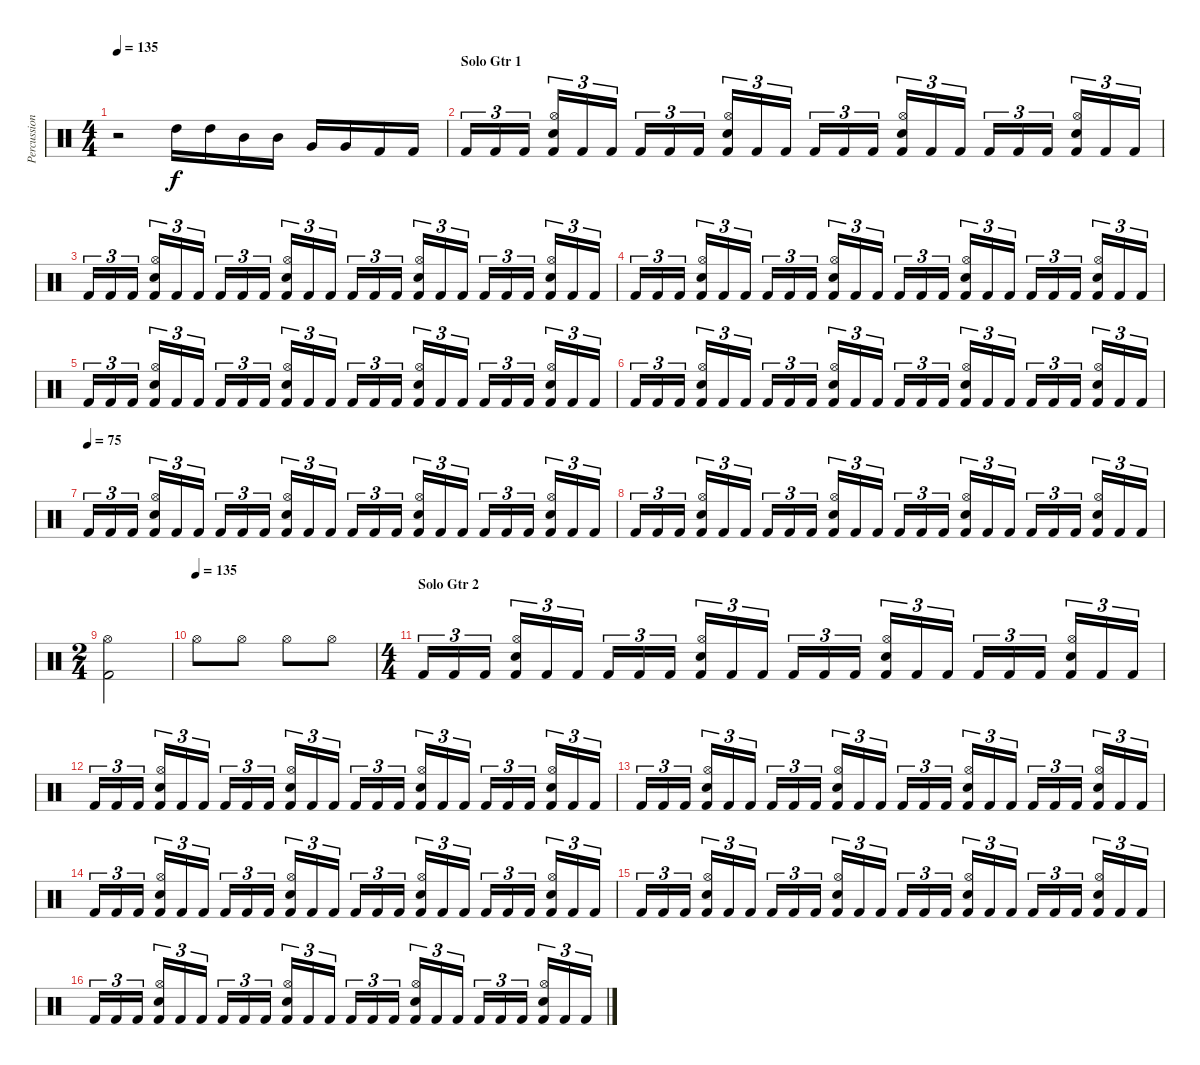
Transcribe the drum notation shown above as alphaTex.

\track ("Percussion" "Percussion") {instrument percussion}
\staff {score}
\articulation defaults
\ts (4 4)
\tempo 135
\clef neutral
\ks c
r.2{dy f} "High Tom (hit)".16 "High Tom (hit)".16 "Mid Tom (hit)".16 "Mid Tom (hit)".16 "Very Low Tom (hit)".16 "Very Low Tom (hit)".16 "Kick (hit) 2".16 "Kick (hit) 2".16 |
\section ("" "Solo Gtr 1")
"Kick (hit) 2".16{tu (3 2)} "Kick (hit) 2".16{tu (3 2)} "Kick (hit) 2".16{tu (3 2)} ("Hi-Hat (open)" "Snare (hit) 2" "Kick (hit) 2").16{tu (3 2)} "Kick (hit) 2".16{tu (3 2)} "Kick (hit) 2".16{tu (3 2)} "Kick (hit) 2".16{tu (3 2)} "Kick (hit) 2".16{tu (3 2)} "Kick (hit) 2".16{tu (3 2)} ("Hi-Hat (open)" "Snare (hit) 2" "Kick (hit) 2").16{tu (3 2)} "Kick (hit) 2".16{tu (3 2)} "Kick (hit) 2".16{tu (3 2)} "Kick (hit) 2".16{tu (3 2)} "Kick (hit) 2".16{tu (3 2)} "Kick (hit) 2".16{tu (3 2)} ("Hi-Hat (open)" "Snare (hit) 2" "Kick (hit) 2").16{tu (3 2)} "Kick (hit) 2".16{tu (3 2)} "Kick (hit) 2".16{tu (3 2)} "Kick (hit) 2".16{tu (3 2)} "Kick (hit) 2".16{tu (3 2)} "Kick (hit) 2".16{tu (3 2)} ("Hi-Hat (open)" "Snare (hit) 2" "Kick (hit) 2").16{tu (3 2)} "Kick (hit) 2".16{tu (3 2)} "Kick (hit) 2".16{tu (3 2)} |
"Kick (hit) 2".16{tu (3 2)} "Kick (hit) 2".16{tu (3 2)} "Kick (hit) 2".16{tu (3 2)} ("Hi-Hat (open)" "Snare (hit) 2" "Kick (hit) 2").16{tu (3 2)} "Kick (hit) 2".16{tu (3 2)} "Kick (hit) 2".16{tu (3 2)} "Kick (hit) 2".16{tu (3 2)} "Kick (hit) 2".16{tu (3 2)} "Kick (hit) 2".16{tu (3 2)} ("Hi-Hat (open)" "Snare (hit) 2" "Kick (hit) 2").16{tu (3 2)} "Kick (hit) 2".16{tu (3 2)} "Kick (hit) 2".16{tu (3 2)} "Kick (hit) 2".16{tu (3 2)} "Kick (hit) 2".16{tu (3 2)} "Kick (hit) 2".16{tu (3 2)} ("Hi-Hat (open)" "Snare (hit) 2" "Kick (hit) 2").16{tu (3 2)} "Kick (hit) 2".16{tu (3 2)} "Kick (hit) 2".16{tu (3 2)} "Kick (hit) 2".16{tu (3 2)} "Kick (hit) 2".16{tu (3 2)} "Kick (hit) 2".16{tu (3 2)} ("Hi-Hat (open)" "Snare (hit) 2" "Kick (hit) 2").16{tu (3 2)} "Kick (hit) 2".16{tu (3 2)} "Kick (hit) 2".16{tu (3 2)} |
"Kick (hit) 2".16{tu (3 2)} "Kick (hit) 2".16{tu (3 2)} "Kick (hit) 2".16{tu (3 2)} ("Hi-Hat (open)" "Snare (hit) 2" "Kick (hit) 2").16{tu (3 2)} "Kick (hit) 2".16{tu (3 2)} "Kick (hit) 2".16{tu (3 2)} "Kick (hit) 2".16{tu (3 2)} "Kick (hit) 2".16{tu (3 2)} "Kick (hit) 2".16{tu (3 2)} ("Hi-Hat (open)" "Snare (hit) 2" "Kick (hit) 2").16{tu (3 2)} "Kick (hit) 2".16{tu (3 2)} "Kick (hit) 2".16{tu (3 2)} "Kick (hit) 2".16{tu (3 2)} "Kick (hit) 2".16{tu (3 2)} "Kick (hit) 2".16{tu (3 2)} ("Hi-Hat (open)" "Snare (hit) 2" "Kick (hit) 2").16{tu (3 2)} "Kick (hit) 2".16{tu (3 2)} "Kick (hit) 2".16{tu (3 2)} "Kick (hit) 2".16{tu (3 2)} "Kick (hit) 2".16{tu (3 2)} "Kick (hit) 2".16{tu (3 2)} ("Hi-Hat (open)" "Snare (hit) 2" "Kick (hit) 2").16{tu (3 2)} "Kick (hit) 2".16{tu (3 2)} "Kick (hit) 2".16{tu (3 2)} |
"Kick (hit) 2".16{tu (3 2)} "Kick (hit) 2".16{tu (3 2)} "Kick (hit) 2".16{tu (3 2)} ("Hi-Hat (open)" "Snare (hit) 2" "Kick (hit) 2").16{tu (3 2)} "Kick (hit) 2".16{tu (3 2)} "Kick (hit) 2".16{tu (3 2)} "Kick (hit) 2".16{tu (3 2)} "Kick (hit) 2".16{tu (3 2)} "Kick (hit) 2".16{tu (3 2)} ("Hi-Hat (open)" "Snare (hit) 2" "Kick (hit) 2").16{tu (3 2)} "Kick (hit) 2".16{tu (3 2)} "Kick (hit) 2".16{tu (3 2)} "Kick (hit) 2".16{tu (3 2)} "Kick (hit) 2".16{tu (3 2)} "Kick (hit) 2".16{tu (3 2)} ("Hi-Hat (open)" "Snare (hit) 2" "Kick (hit) 2").16{tu (3 2)} "Kick (hit) 2".16{tu (3 2)} "Kick (hit) 2".16{tu (3 2)} "Kick (hit) 2".16{tu (3 2)} "Kick (hit) 2".16{tu (3 2)} "Kick (hit) 2".16{tu (3 2)} ("Hi-Hat (open)" "Snare (hit) 2" "Kick (hit) 2").16{tu (3 2)} "Kick (hit) 2".16{tu (3 2)} "Kick (hit) 2".16{tu (3 2)} |
"Kick (hit) 2".16{tu (3 2)} "Kick (hit) 2".16{tu (3 2)} "Kick (hit) 2".16{tu (3 2)} ("Hi-Hat (open)" "Snare (hit) 2" "Kick (hit) 2").16{tu (3 2)} "Kick (hit) 2".16{tu (3 2)} "Kick (hit) 2".16{tu (3 2)} "Kick (hit) 2".16{tu (3 2)} "Kick (hit) 2".16{tu (3 2)} "Kick (hit) 2".16{tu (3 2)} ("Hi-Hat (open)" "Snare (hit) 2" "Kick (hit) 2").16{tu (3 2)} "Kick (hit) 2".16{tu (3 2)} "Kick (hit) 2".16{tu (3 2)} "Kick (hit) 2".16{tu (3 2)} "Kick (hit) 2".16{tu (3 2)} "Kick (hit) 2".16{tu (3 2)} ("Hi-Hat (open)" "Snare (hit) 2" "Kick (hit) 2").16{tu (3 2)} "Kick (hit) 2".16{tu (3 2)} "Kick (hit) 2".16{tu (3 2)} "Kick (hit) 2".16{tu (3 2)} "Kick (hit) 2".16{tu (3 2)} "Kick (hit) 2".16{tu (3 2)} ("Hi-Hat (open)" "Snare (hit) 2" "Kick (hit) 2").16{tu (3 2)} "Kick (hit) 2".16{tu (3 2)} "Kick (hit) 2".16{tu (3 2)} |
\tempo (75)
"Kick (hit) 2".16{tu (3 2)} "Kick (hit) 2".16{tu (3 2)} "Kick (hit) 2".16{tu (3 2)} ("Hi-Hat (open)" "Snare (hit) 2" "Kick (hit) 2").16{tu (3 2)} "Kick (hit) 2".16{tu (3 2)} "Kick (hit) 2".16{tu (3 2)} "Kick (hit) 2".16{tu (3 2)} "Kick (hit) 2".16{tu (3 2)} "Kick (hit) 2".16{tu (3 2)} ("Hi-Hat (open)" "Snare (hit) 2" "Kick (hit) 2").16{tu (3 2)} "Kick (hit) 2".16{tu (3 2)} "Kick (hit) 2".16{tu (3 2)} "Kick (hit) 2".16{tu (3 2)} "Kick (hit) 2".16{tu (3 2)} "Kick (hit) 2".16{tu (3 2)} ("Hi-Hat (open)" "Snare (hit) 2" "Kick (hit) 2").16{tu (3 2)} "Kick (hit) 2".16{tu (3 2)} "Kick (hit) 2".16{tu (3 2)} "Kick (hit) 2".16{tu (3 2)} "Kick (hit) 2".16{tu (3 2)} "Kick (hit) 2".16{tu (3 2)} ("Hi-Hat (open)" "Snare (hit) 2" "Kick (hit) 2").16{tu (3 2)} "Kick (hit) 2".16{tu (3 2)} "Kick (hit) 2".16{tu (3 2)} |
"Kick (hit) 2".16{tu (3 2)} "Kick (hit) 2".16{tu (3 2)} "Kick (hit) 2".16{tu (3 2)} ("Hi-Hat (open)" "Snare (hit) 2" "Kick (hit) 2").16{tu (3 2)} "Kick (hit) 2".16{tu (3 2)} "Kick (hit) 2".16{tu (3 2)} "Kick (hit) 2".16{tu (3 2)} "Kick (hit) 2".16{tu (3 2)} "Kick (hit) 2".16{tu (3 2)} ("Hi-Hat (open)" "Snare (hit) 2" "Kick (hit) 2").16{tu (3 2)} "Kick (hit) 2".16{tu (3 2)} "Kick (hit) 2".16{tu (3 2)} "Kick (hit) 2".16{tu (3 2)} "Kick (hit) 2".16{tu (3 2)} "Kick (hit) 2".16{tu (3 2)} ("Hi-Hat (open)" "Snare (hit) 2" "Kick (hit) 2").16{tu (3 2)} "Kick (hit) 2".16{tu (3 2)} "Kick (hit) 2".16{tu (3 2)} "Kick (hit) 2".16{tu (3 2)} "Kick (hit) 2".16{tu (3 2)} "Kick (hit) 2".16{tu (3 2)} ("Hi-Hat (open)" "Snare (hit) 2" "Kick (hit) 2").16{tu (3 2)} "Kick (hit) 2".16{tu (3 2)} "Kick (hit) 2".16{tu (3 2)} |
\ts (2 4)
("Hi-Hat (open)" "Kick (hit) 2").2 |
\tempo (135)
"Hi-Hat (open)".8 "Hi-Hat (open)".8 "Hi-Hat (open)".8 "Hi-Hat (open)".8 |
\ts (4 4)
\section ("" "Solo Gtr 2")
"Kick (hit) 2".16{tu (3 2)} "Kick (hit) 2".16{tu (3 2)} "Kick (hit) 2".16{tu (3 2)} ("Hi-Hat (open)" "Snare (hit) 2" "Kick (hit) 2").16{tu (3 2)} "Kick (hit) 2".16{tu (3 2)} "Kick (hit) 2".16{tu (3 2)} "Kick (hit) 2".16{tu (3 2)} "Kick (hit) 2".16{tu (3 2)} "Kick (hit) 2".16{tu (3 2)} ("Hi-Hat (open)" "Snare (hit) 2" "Kick (hit) 2").16{tu (3 2)} "Kick (hit) 2".16{tu (3 2)} "Kick (hit) 2".16{tu (3 2)} "Kick (hit) 2".16{tu (3 2)} "Kick (hit) 2".16{tu (3 2)} "Kick (hit) 2".16{tu (3 2)} ("Hi-Hat (open)" "Snare (hit) 2" "Kick (hit) 2").16{tu (3 2)} "Kick (hit) 2".16{tu (3 2)} "Kick (hit) 2".16{tu (3 2)} "Kick (hit) 2".16{tu (3 2)} "Kick (hit) 2".16{tu (3 2)} "Kick (hit) 2".16{tu (3 2)} ("Hi-Hat (open)" "Snare (hit) 2" "Kick (hit) 2").16{tu (3 2)} "Kick (hit) 2".16{tu (3 2)} "Kick (hit) 2".16{tu (3 2)} |
"Kick (hit) 2".16{tu (3 2)} "Kick (hit) 2".16{tu (3 2)} "Kick (hit) 2".16{tu (3 2)} ("Hi-Hat (open)" "Snare (hit) 2" "Kick (hit) 2").16{tu (3 2)} "Kick (hit) 2".16{tu (3 2)} "Kick (hit) 2".16{tu (3 2)} "Kick (hit) 2".16{tu (3 2)} "Kick (hit) 2".16{tu (3 2)} "Kick (hit) 2".16{tu (3 2)} ("Hi-Hat (open)" "Snare (hit) 2" "Kick (hit) 2").16{tu (3 2)} "Kick (hit) 2".16{tu (3 2)} "Kick (hit) 2".16{tu (3 2)} "Kick (hit) 2".16{tu (3 2)} "Kick (hit) 2".16{tu (3 2)} "Kick (hit) 2".16{tu (3 2)} ("Hi-Hat (open)" "Snare (hit) 2" "Kick (hit) 2").16{tu (3 2)} "Kick (hit) 2".16{tu (3 2)} "Kick (hit) 2".16{tu (3 2)} "Kick (hit) 2".16{tu (3 2)} "Kick (hit) 2".16{tu (3 2)} "Kick (hit) 2".16{tu (3 2)} ("Hi-Hat (open)" "Snare (hit) 2" "Kick (hit) 2").16{tu (3 2)} "Kick (hit) 2".16{tu (3 2)} "Kick (hit) 2".16{tu (3 2)} |
"Kick (hit) 2".16{tu (3 2)} "Kick (hit) 2".16{tu (3 2)} "Kick (hit) 2".16{tu (3 2)} ("Hi-Hat (open)" "Snare (hit) 2" "Kick (hit) 2").16{tu (3 2)} "Kick (hit) 2".16{tu (3 2)} "Kick (hit) 2".16{tu (3 2)} "Kick (hit) 2".16{tu (3 2)} "Kick (hit) 2".16{tu (3 2)} "Kick (hit) 2".16{tu (3 2)} ("Hi-Hat (open)" "Snare (hit) 2" "Kick (hit) 2").16{tu (3 2)} "Kick (hit) 2".16{tu (3 2)} "Kick (hit) 2".16{tu (3 2)} "Kick (hit) 2".16{tu (3 2)} "Kick (hit) 2".16{tu (3 2)} "Kick (hit) 2".16{tu (3 2)} ("Hi-Hat (open)" "Snare (hit) 2" "Kick (hit) 2").16{tu (3 2)} "Kick (hit) 2".16{tu (3 2)} "Kick (hit) 2".16{tu (3 2)} "Kick (hit) 2".16{tu (3 2)} "Kick (hit) 2".16{tu (3 2)} "Kick (hit) 2".16{tu (3 2)} ("Hi-Hat (open)" "Snare (hit) 2" "Kick (hit) 2").16{tu (3 2)} "Kick (hit) 2".16{tu (3 2)} "Kick (hit) 2".16{tu (3 2)} |
"Kick (hit) 2".16{tu (3 2)} "Kick (hit) 2".16{tu (3 2)} "Kick (hit) 2".16{tu (3 2)} ("Hi-Hat (open)" "Snare (hit) 2" "Kick (hit) 2").16{tu (3 2)} "Kick (hit) 2".16{tu (3 2)} "Kick (hit) 2".16{tu (3 2)} "Kick (hit) 2".16{tu (3 2)} "Kick (hit) 2".16{tu (3 2)} "Kick (hit) 2".16{tu (3 2)} ("Hi-Hat (open)" "Snare (hit) 2" "Kick (hit) 2").16{tu (3 2)} "Kick (hit) 2".16{tu (3 2)} "Kick (hit) 2".16{tu (3 2)} "Kick (hit) 2".16{tu (3 2)} "Kick (hit) 2".16{tu (3 2)} "Kick (hit) 2".16{tu (3 2)} ("Hi-Hat (open)" "Snare (hit) 2" "Kick (hit) 2").16{tu (3 2)} "Kick (hit) 2".16{tu (3 2)} "Kick (hit) 2".16{tu (3 2)} "Kick (hit) 2".16{tu (3 2)} "Kick (hit) 2".16{tu (3 2)} "Kick (hit) 2".16{tu (3 2)} ("Hi-Hat (open)" "Snare (hit) 2" "Kick (hit) 2").16{tu (3 2)} "Kick (hit) 2".16{tu (3 2)} "Kick (hit) 2".16{tu (3 2)} |
"Kick (hit) 2".16{tu (3 2)} "Kick (hit) 2".16{tu (3 2)} "Kick (hit) 2".16{tu (3 2)} ("Hi-Hat (open)" "Snare (hit) 2" "Kick (hit) 2").16{tu (3 2)} "Kick (hit) 2".16{tu (3 2)} "Kick (hit) 2".16{tu (3 2)} "Kick (hit) 2".16{tu (3 2)} "Kick (hit) 2".16{tu (3 2)} "Kick (hit) 2".16{tu (3 2)} ("Hi-Hat (open)" "Snare (hit) 2" "Kick (hit) 2").16{tu (3 2)} "Kick (hit) 2".16{tu (3 2)} "Kick (hit) 2".16{tu (3 2)} "Kick (hit) 2".16{tu (3 2)} "Kick (hit) 2".16{tu (3 2)} "Kick (hit) 2".16{tu (3 2)} ("Hi-Hat (open)" "Snare (hit) 2" "Kick (hit) 2").16{tu (3 2)} "Kick (hit) 2".16{tu (3 2)} "Kick (hit) 2".16{tu (3 2)} "Kick (hit) 2".16{tu (3 2)} "Kick (hit) 2".16{tu (3 2)} "Kick (hit) 2".16{tu (3 2)} ("Hi-Hat (open)" "Snare (hit) 2" "Kick (hit) 2").16{tu (3 2)} "Kick (hit) 2".16{tu (3 2)} "Kick (hit) 2".16{tu (3 2)} |
"Kick (hit) 2".16{tu (3 2)} "Kick (hit) 2".16{tu (3 2)} "Kick (hit) 2".16{tu (3 2)} ("Hi-Hat (open)" "Snare (hit) 2" "Kick (hit) 2").16{tu (3 2)} "Kick (hit) 2".16{tu (3 2)} "Kick (hit) 2".16{tu (3 2)} "Kick (hit) 2".16{tu (3 2)} "Kick (hit) 2".16{tu (3 2)} "Kick (hit) 2".16{tu (3 2)} ("Hi-Hat (open)" "Snare (hit) 2" "Kick (hit) 2").16{tu (3 2)} "Kick (hit) 2".16{tu (3 2)} "Kick (hit) 2".16{tu (3 2)} "Kick (hit) 2".16{tu (3 2)} "Kick (hit) 2".16{tu (3 2)} "Kick (hit) 2".16{tu (3 2)} ("Hi-Hat (open)" "Snare (hit) 2" "Kick (hit) 2").16{tu (3 2)} "Kick (hit) 2".16{tu (3 2)} "Kick (hit) 2".16{tu (3 2)} "Kick (hit) 2".16{tu (3 2)} "Kick (hit) 2".16{tu (3 2)} "Kick (hit) 2".16{tu (3 2)} ("Hi-Hat (open)" "Snare (hit) 2" "Kick (hit) 2").16{tu (3 2)} "Kick (hit) 2".16{tu (3 2)} "Kick (hit) 2".16{tu (3 2)}
